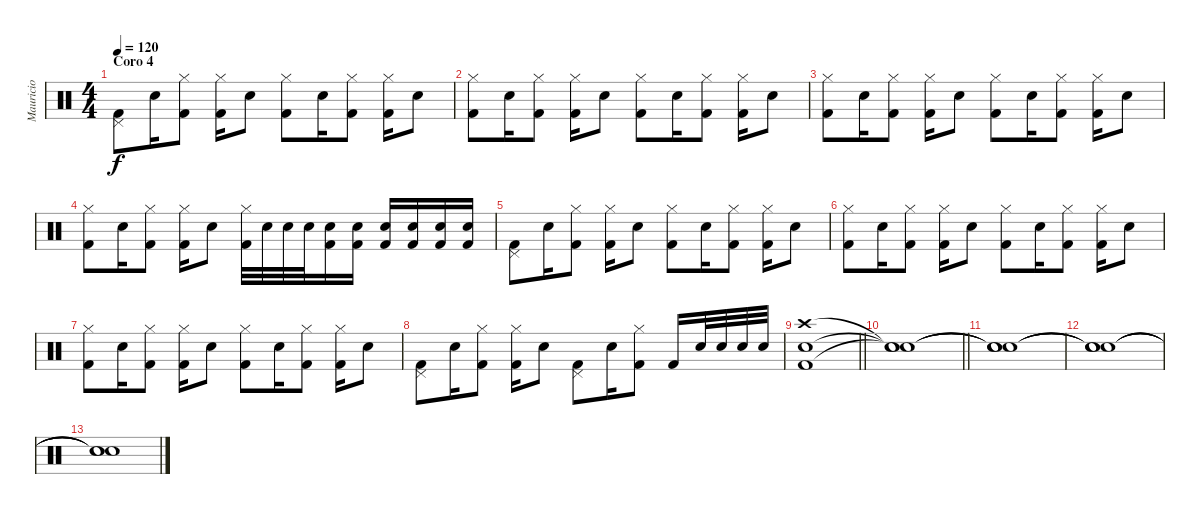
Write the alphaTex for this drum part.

\track ("Mauricio" "Mauricio") {instrument percussion}
\staff {score}
\articulation defaults
\ts (4 4)
\section ("" "Coro 4")
\tempo 120
\clef neutral
\ks c
("Pedal Hi-Hat (hit)" "Kick (hit) 2").8{dy f} "Electric Snare (hit)".16 ("Hi-Hat (closed)" "Kick (hit) 2").8 ("Hi-Hat (closed)" "Kick (hit) 2").16 "Electric Snare (hit)".8 ("Hi-Hat (closed)" "Kick (hit) 2").8 "Electric Snare (hit)".16 ("Hi-Hat (closed)" "Kick (hit) 2").8 ("Hi-Hat (closed)" "Kick (hit) 2").16 "Electric Snare (hit)".8 |
("Hi-Hat (closed)" "Kick (hit) 2").8 "Electric Snare (hit)".16 ("Hi-Hat (closed)" "Kick (hit) 2").8 ("Hi-Hat (closed)" "Kick (hit) 2").16 "Electric Snare (hit)".8 ("Hi-Hat (closed)" "Kick (hit) 2").8 "Electric Snare (hit)".16 ("Hi-Hat (closed)" "Kick (hit) 2").8 ("Hi-Hat (closed)" "Kick (hit) 2").16 "Electric Snare (hit)".8 |
("Hi-Hat (closed)" "Kick (hit) 2").8 "Electric Snare (hit)".16 ("Hi-Hat (closed)" "Kick (hit) 2").8 ("Hi-Hat (closed)" "Kick (hit) 2").16 "Electric Snare (hit)".8 ("Hi-Hat (closed)" "Kick (hit) 2").8 "Electric Snare (hit)".16 ("Hi-Hat (closed)" "Kick (hit) 2").8 ("Hi-Hat (closed)" "Kick (hit) 2").16 "Electric Snare (hit)".8 |
("Hi-Hat (closed)" "Kick (hit) 2").8 "Electric Snare (hit)".16 ("Hi-Hat (closed)" "Kick (hit) 2").8 ("Hi-Hat (closed)" "Kick (hit) 2").16 "Electric Snare (hit)".8 ("Hi-Hat (closed)" "Kick (hit) 2").32 "Electric Snare (hit)".32 "Electric Snare (hit)".32 "Electric Snare (hit)".32 ("Kick (hit) 2" "Electric Snare (hit)").16 ("Kick (hit) 2" "Electric Snare (hit)").16 ("Kick (hit) 2" "Electric Snare (hit)").16 ("Kick (hit) 2" "Electric Snare (hit)").16 ("Kick (hit) 2" "Electric Snare (hit)").16 ("Kick (hit) 2" "Electric Snare (hit)").16 |
("Pedal Hi-Hat (hit)" "Kick (hit) 2").8 "Electric Snare (hit)".16 ("Hi-Hat (closed)" "Kick (hit) 2").8 ("Hi-Hat (closed)" "Kick (hit) 2").16 "Electric Snare (hit)".8 ("Hi-Hat (closed)" "Kick (hit) 2").8 "Electric Snare (hit)".16 ("Hi-Hat (closed)" "Kick (hit) 2").8 ("Hi-Hat (closed)" "Kick (hit) 2").16 "Electric Snare (hit)".8 |
("Hi-Hat (closed)" "Kick (hit) 2").8 "Electric Snare (hit)".16 ("Hi-Hat (closed)" "Kick (hit) 2").8 ("Hi-Hat (closed)" "Kick (hit) 2").16 "Electric Snare (hit)".8 ("Hi-Hat (closed)" "Kick (hit) 2").8 "Electric Snare (hit)".16 ("Hi-Hat (closed)" "Kick (hit) 2").8 ("Hi-Hat (closed)" "Kick (hit) 2").16 "Electric Snare (hit)".8 |
("Hi-Hat (closed)" "Kick (hit) 2").8 "Electric Snare (hit)".16 ("Hi-Hat (closed)" "Kick (hit) 2").8 ("Hi-Hat (closed)" "Kick (hit) 2").16 "Electric Snare (hit)".8 ("Hi-Hat (closed)" "Kick (hit) 2").8 "Electric Snare (hit)".16 ("Hi-Hat (closed)" "Kick (hit) 2").8 ("Hi-Hat (closed)" "Kick (hit) 2").16 "Electric Snare (hit)".8 |
("Pedal Hi-Hat (hit)" "Kick (hit) 2").8 "Electric Snare (hit)".16 ("Hi-Hat (closed)" "Kick (hit) 2").8 ("Hi-Hat (closed)" "Kick (hit) 2").16 "Electric Snare (hit)".8 ("Pedal Hi-Hat (hit)" "Kick (hit) 2").8 "Electric Snare (hit)".16 ("Hi-Hat (closed)" "Kick (hit) 2").8 "Kick (hit) 2".16 "Electric Snare (hit)".32 "Electric Snare (hit)".32 "Electric Snare (hit)".32 "Electric Snare (hit)".32 |
\barLineRight lightlight
("Crash high (hit)" "Kick (hit) 2" "Electric Snare (hit)").1 |
\barLineRight lightlight
("Snare (hit)"{t} "Snare (hit)"{t} "Snare (hit)"{t}).1 |
("Snare (hit)"{t} "Snare (hit)"{t} "Snare (hit)"{t}).1 |
("Snare (hit)"{t} "Snare (hit)"{t} "Snare (hit)"{t}).1 |
("Snare (hit)"{t} "Snare (hit)"{t} "Snare (hit)"{t}).1
